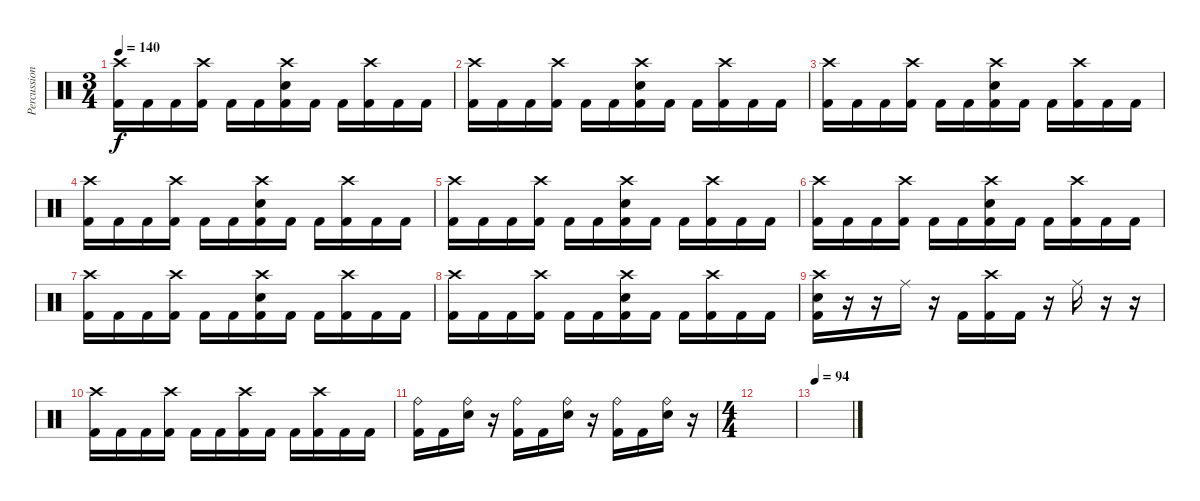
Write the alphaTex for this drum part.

\track ("Percussion" "Percussion") {instrument percussion}
\staff {score}
\articulation defaults
\ts (3 4)
\tempo 140
\clef neutral
\ks c
("Crash high (hit)" "Kick (hit) 2").16{dy f} "Kick (hit) 2".16 "Kick (hit) 2".16 ("Crash high (hit)" "Kick (hit) 2").16 "Kick (hit) 2".16 "Kick (hit) 2".16 ("Crash high (hit)" "Snare (hit) 2" "Kick (hit) 2").16 "Kick (hit) 2".16 "Kick (hit) 2".16 ("Crash high (hit)" "Kick (hit) 2").16 "Kick (hit) 2".16 "Kick (hit) 2".16 |
("Crash high (hit)" "Kick (hit) 2").16 "Kick (hit) 2".16 "Kick (hit) 2".16 ("Crash high (hit)" "Kick (hit) 2").16 "Kick (hit) 2".16 "Kick (hit) 2".16 ("Crash high (hit)" "Snare (hit) 2" "Kick (hit) 2").16 "Kick (hit) 2".16 "Kick (hit) 2".16 ("Crash high (hit)" "Kick (hit) 2").16 "Kick (hit) 2".16 "Kick (hit) 2".16 |
("Crash high (hit)" "Kick (hit) 2").16 "Kick (hit) 2".16 "Kick (hit) 2".16 ("Crash high (hit)" "Kick (hit) 2").16 "Kick (hit) 2".16 "Kick (hit) 2".16 ("Crash high (hit)" "Snare (hit) 2" "Kick (hit) 2").16 "Kick (hit) 2".16 "Kick (hit) 2".16 ("Crash high (hit)" "Kick (hit) 2").16 "Kick (hit) 2".16 "Kick (hit) 2".16 |
("Crash high (hit)" "Kick (hit) 2").16 "Kick (hit) 2".16 "Kick (hit) 2".16 ("Crash high (hit)" "Kick (hit) 2").16 "Kick (hit) 2".16 "Kick (hit) 2".16 ("Crash high (hit)" "Snare (hit) 2" "Kick (hit) 2").16 "Kick (hit) 2".16 "Kick (hit) 2".16 ("Crash high (hit)" "Kick (hit) 2").16 "Kick (hit) 2".16 "Kick (hit) 2".16 |
("Crash high (hit)" "Kick (hit) 2").16 "Kick (hit) 2".16 "Kick (hit) 2".16 ("Crash high (hit)" "Kick (hit) 2").16 "Kick (hit) 2".16 "Kick (hit) 2".16 ("Crash high (hit)" "Snare (hit) 2" "Kick (hit) 2").16 "Kick (hit) 2".16 "Kick (hit) 2".16 ("Crash high (hit)" "Kick (hit) 2").16 "Kick (hit) 2".16 "Kick (hit) 2".16 |
("Crash high (hit)" "Kick (hit) 2").16 "Kick (hit) 2".16 "Kick (hit) 2".16 ("Crash high (hit)" "Kick (hit) 2").16 "Kick (hit) 2".16 "Kick (hit) 2".16 ("Crash high (hit)" "Snare (hit) 2" "Kick (hit) 2").16 "Kick (hit) 2".16 "Kick (hit) 2".16 ("Crash high (hit)" "Kick (hit) 2").16 "Kick (hit) 2".16 "Kick (hit) 2".16 |
("Crash high (hit)" "Kick (hit) 2").16 "Kick (hit) 2".16 "Kick (hit) 2".16 ("Crash high (hit)" "Kick (hit) 2").16 "Kick (hit) 2".16 "Kick (hit) 2".16 ("Crash high (hit)" "Snare (hit) 2" "Kick (hit) 2").16 "Kick (hit) 2".16 "Kick (hit) 2".16 ("Crash high (hit)" "Kick (hit) 2").16 "Kick (hit) 2".16 "Kick (hit) 2".16 |
("Crash high (hit)" "Kick (hit) 2").16 "Kick (hit) 2".16 "Kick (hit) 2".16 ("Crash high (hit)" "Kick (hit) 2").16 "Kick (hit) 2".16 "Kick (hit) 2".16 ("Crash high (hit)" "Snare (hit) 2" "Kick (hit) 2").16 "Kick (hit) 2".16 "Kick (hit) 2".16 ("Crash high (hit)" "Kick (hit) 2").16 "Kick (hit) 2".16 "Kick (hit) 2".16 |
("Crash high (hit)" "Snare (hit) 2" "Kick (hit) 2").16 r.16 r.16 "Ride (middle)".16 r.16 "Kick (hit) 2".16 ("Crash high (hit)" "Kick (hit) 2").16 "Kick (hit) 2".16 r.16 "Ride (middle)".16 r.16 r.16 |
("Crash high (hit)" "Kick (hit) 2").16 "Kick (hit) 2".16 "Kick (hit) 2".16 ("Crash high (hit)" "Kick (hit) 2").16 "Kick (hit) 2".16 "Kick (hit) 2".16 ("Crash high (hit)" "Kick (hit) 2").16 "Kick (hit) 2".16 "Kick (hit) 2".16 ("Crash high (hit)" "Kick (hit) 2").16 "Kick (hit) 2".16 "Kick (hit) 2".16 |
("Ride (bell)" "Kick (hit) 2").16 "Kick (hit) 2".16 ("Ride (bell)" "Snare (hit) 2").16 r.16 ("Ride (bell)" "Kick (hit) 2").16 "Kick (hit) 2".16 ("Ride (bell)" "Snare (hit) 2").16 r.16 ("Ride (bell)" "Kick (hit) 2").16 "Kick (hit) 2".16 ("Ride (bell)" "Snare (hit) 2").16 r.16 |
\ts (4 4)
|
\tempo 94
